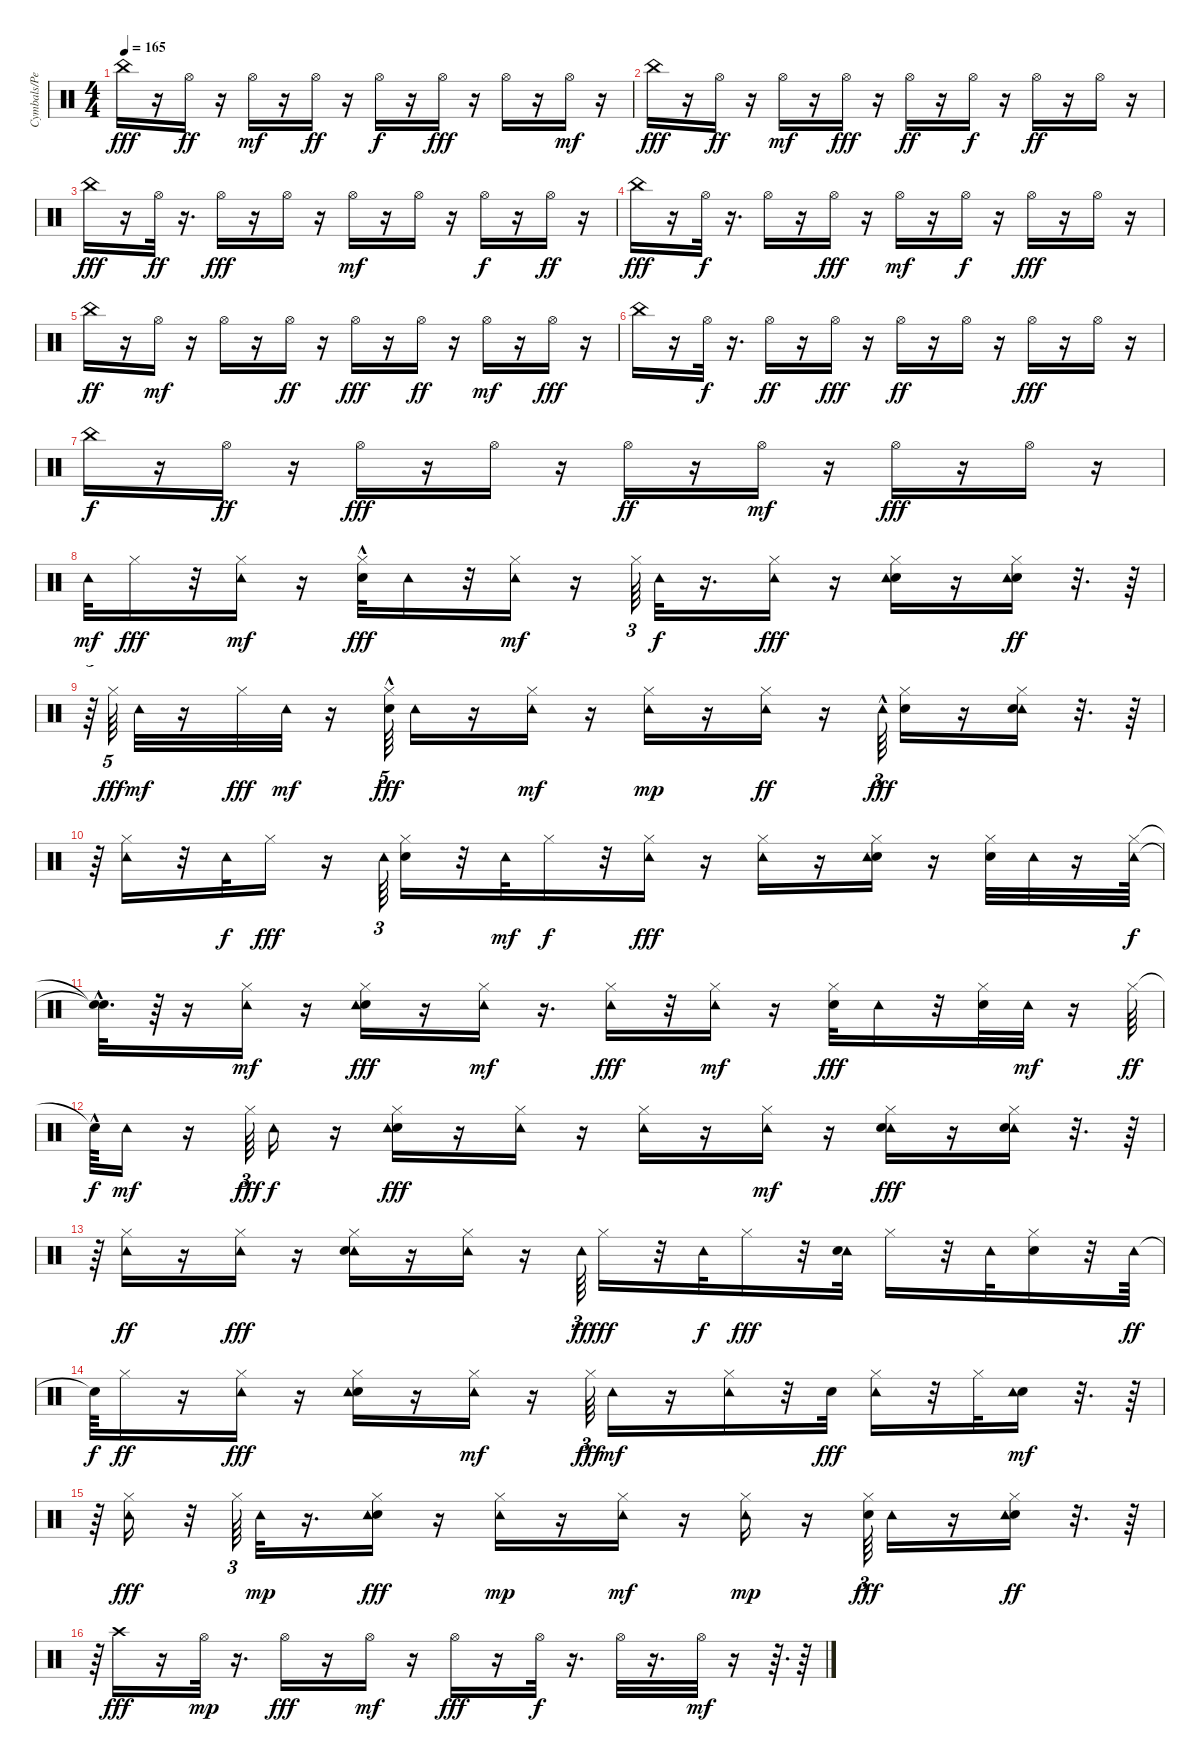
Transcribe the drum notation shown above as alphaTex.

\track ("Cymbals/Percussion" "Cymbals/Pe") {instrument percussion}
\staff {score}
\articulation defaults
\ts (4 4)
\tempo 165
\clef neutral
\ks c "China (hit)".16{dy fff}
r.16 "Hi-Hat (open)".16{dy ff} r.16 "Hi-Hat (open)".16{dy mf} r.16 "Hi-Hat (open)".16{dy ff} r.16 "Hi-Hat (open)".16{dy f} r.16 "Hi-Hat (open)".16{dy fff} r.16 "Hi-Hat (open)".16 r.16 "Hi-Hat (open)".16{dy mf} r.16 |
"China (hit)".16{dy fff} r.16 "Hi-Hat (open)".16{dy ff} r.16 "Hi-Hat (open)".16{dy mf} r.16 "Hi-Hat (open)".16{dy fff} r.16 "Hi-Hat (open)".16{dy ff} r.16 "Hi-Hat (open)".16{dy f} r.16 "Hi-Hat (open)".16{dy ff} r.16 "Hi-Hat (open)".16 r.16 |
"China (hit)".16{dy fff} r.16 "Hi-Hat (open)".32{dy ff} r.16{d} "Hi-Hat (open)".16{dy fff} r.16 "Hi-Hat (open)".16 r.16 "Hi-Hat (open)".16{dy mf} r.16 "Hi-Hat (open)".16 r.16 "Hi-Hat (open)".16{dy f} r.16 "Hi-Hat (open)".16{dy ff} r.16 |
"China (hit)".16{dy fff} r.16 "Hi-Hat (open)".32{dy f} r.16{d} "Hi-Hat (open)".16 r.16 "Hi-Hat (open)".16{dy fff} r.16 "Hi-Hat (open)".16{dy mf} r.16 "Hi-Hat (open)".16{dy f} r.16 "Hi-Hat (open)".16{dy fff} r.16 "Hi-Hat (open)".16 r.16 |
"China (hit)".16{dy ff} r.16 "Hi-Hat (open)".16{dy mf} r.16 "Hi-Hat (open)".16 r.16 "Hi-Hat (open)".16{dy ff} r.16 "Hi-Hat (open)".16{dy fff} r.16 "Hi-Hat (open)".16{dy ff} r.16 "Hi-Hat (open)".16{dy mf} r.16 "Hi-Hat (open)".16{dy fff} r.16 |
"China (hit)".16 r.16 "Hi-Hat (open)".32{dy f} r.16{d} "Hi-Hat (open)".16{dy ff} r.16 "Hi-Hat (open)".16{dy fff} r.16 "Hi-Hat (open)".16{dy ff} r.16 "Hi-Hat (open)".16 r.16 "Hi-Hat (open)".16{dy fff} r.16 "Hi-Hat (open)".16 r.16 |
"China (hit)".16{dy f} r.16 "Hi-Hat (open)".16{dy ff} r.16 "Hi-Hat (open)".16{dy fff} r.16 "Hi-Hat (open)".16 r.16 "Hi-Hat (open)".16{dy ff} r.16 "Hi-Hat (open)".16{dy mf} r.16 "Hi-Hat (open)".16{dy fff} r.16 "Hi-Hat (open)".16 r.16 |
"Tambourine (hit)".32{dy mf} "Hi-Hat (closed)".16{dy fff} r.32 ("Hi-Hat (closed)" "Tambourine (hit)").16{dy mf} r.16 ("Hand Clap (hit)" "Hi-Hat (closed)"{hac}).32{dy fff} "Tambourine (hit)".16 r.32 ("Hi-Hat (closed)" "Tambourine (hit)").16{dy mf} r.16 "Hi-Hat (closed)".64{tu (3 2)} "Tambourine (hit)".32{dy f} r.16{d} ("Hi-Hat (closed)" "Tambourine (hit)").16{dy fff} r.16 ("Hi-Hat (closed)" "Hand Clap (hit)" "Tambourine (hit)").16 r.16 ("Hand Clap (hit)" "Tambourine (hit)" "Hi-Hat (closed)").16{dy ff} r.32{d} r.64 |
r.64{tu (3 2)} "Hi-Hat (closed)".64{tu (5 4) dy fff} "Tambourine (hit)".32{dy mf} r.16 "Hi-Hat (closed)".32{dy fff} "Tambourine (hit)".32{dy mf} r.16 ("Hi-Hat (closed)"{hac} "Hand Clap (hit)").64{tu (5 4) dy fff} "Tambourine (hit)".16 r.16 ("Hi-Hat (closed)" "Tambourine (hit)").16{dy mf} r.16 ("Hi-Hat (closed)" "Tambourine (hit)").16{dy mp} r.16 ("Tambourine (hit)" "Hi-Hat (closed)").16{dy ff} r.16 "Tambourine (hit)"{hac}.64{tu (3 2) dy fff} ("Hi-Hat (closed)" "Hand Clap (hit)").16 r.16 ("Tambourine (hit)" "Hand Clap (hit)" "Hi-Hat (closed)").16 r.32{d} r.64 |
r.64 ("Tambourine (hit)" "Hi-Hat (closed)").16 r.32 "Tambourine (hit)".32{dy f} "Hi-Hat (closed)".16{dy fff} r.16 "Tambourine (hit)".64{tu (3 2)} ("Hand Clap (hit)" "Hi-Hat (closed)").16 r.32 "Tambourine (hit)".32{dy mf} "Hi-Hat (closed)".16{dy f} r.32 ("Tambourine (hit)" "Hi-Hat (closed)").16{dy fff} r.16 ("Tambourine (hit)" "Hi-Hat (closed)").16 r.16 ("Hand Clap (hit)" "Hi-Hat (closed)" "Tambourine (hit)").16 r.16 ("Hi-Hat (closed)" "Hand Clap (hit)").32 "Tambourine (hit)".32 r.16 ("Hi-Hat (closed)" "Tambourine (hit)").64{dy f} |
("Snare (hit)"{hac t} "Snare (hit)"{hac t}).32{d} r.64 r.16 ("Hi-Hat (closed)" "Tambourine (hit)").16{dy mf} r.16 ("Hand Clap (hit)" "Hi-Hat (closed)" "Tambourine (hit)").16{dy fff} r.16 ("Hi-Hat (closed)" "Tambourine (hit)").16{dy mf} r.16{d} ("Tambourine (hit)" "Hi-Hat (closed)").16{dy fff} r.32 ("Hi-Hat (closed)" "Tambourine (hit)").16{dy mf} r.16 ("Hand Clap (hit)" "Hi-Hat (closed)").32{dy fff} "Tambourine (hit)".16 r.32 ("Hi-Hat (closed)" "Hand Clap (hit)").32 "Tambourine (hit)".32{dy mf} r.16 "Hi-Hat (closed)".64{dy ff} |
"Snare (hit)"{hac t}.64{dy f} "Tambourine (hit)".16{dy mf} r.16 "Hi-Hat (closed)".64{tu (3 2) dy fff} "Tambourine (hit)".16{dy f} r.16 ("Hi-Hat (closed)" "Hand Clap (hit)" "Tambourine (hit)").16{dy fff} r.16 ("Hi-Hat (closed)" "Tambourine (hit)").16 r.16 ("Hi-Hat (closed)" "Tambourine (hit)").16 r.16 ("Hi-Hat (closed)" "Tambourine (hit)").16{dy mf} r.16 ("Tambourine (hit)" "Hand Clap (hit)" "Hi-Hat (closed)").16{dy fff} r.16 ("Tambourine (hit)" "Hand Clap (hit)" "Hi-Hat (closed)").16 r.32{d} r.64 |
r.64 ("Tambourine (hit)" "Hi-Hat (closed)").16{dy ff} r.16 ("Tambourine (hit)" "Hi-Hat (closed)").16{dy fff} r.16 ("Tambourine (hit)" "Hi-Hat (closed)" "Hand Clap (hit)").16 r.16 ("Tambourine (hit)" "Hi-Hat (closed)").16 r.16 "Tambourine (hit)".64{tu (3 2) dy ff} "Hi-Hat (closed)".16{dy fff} r.32 "Tambourine (hit)".32{dy f} "Hi-Hat (closed)".16{dy fff} r.32 ("Tambourine (hit)" "Hand Clap (hit)").32 "Hi-Hat (closed)".16 r.32 "Tambourine (hit)".32 ("Hi-Hat (closed)" "Hand Clap (hit)").16 r.32 "Tambourine (hit)".64{dy ff} |
"Snare (hit)"{t}.64{dy f} "Hi-Hat (closed)".16{dy ff} r.16 ("Tambourine (hit)" "Hi-Hat (closed)").16{dy fff} r.16 ("Hand Clap (hit)" "Hi-Hat (closed)" "Tambourine (hit)").16 r.16 ("Hi-Hat (closed)" "Tambourine (hit)").16{dy mf} r.16 "Hi-Hat (closed)".64{tu (3 2) dy fff} "Tambourine (hit)".16{dy mf} r.16 ("Hi-Hat (closed)" "Tambourine (hit)").16 r.32 "Hand Clap (hit)".32{dy fff} ("Hi-Hat (closed)" "Tambourine (hit)").16 r.32 "Hi-Hat (closed)".32 ("Hand Clap (hit)" "Tambourine (hit)").16{dy mf} r.32{d} r.64 |
r.64 ("Hi-Hat (closed)" "Tambourine (hit)").16{dy fff} r.32 "Hi-Hat (closed)".64{tu (3 2)} "Tambourine (hit)".32{dy mp} r.16{d} ("Hand Clap (hit)" "Hi-Hat (closed)" "Tambourine (hit)").16{dy fff} r.16 ("Hi-Hat (closed)" "Tambourine (hit)").16{dy mp} r.16 ("Hi-Hat (closed)" "Tambourine (hit)").16{dy mf} r.16 ("Hi-Hat (closed)" "Tambourine (hit)").16{dy mp} r.16 ("Hi-Hat (closed)" "Hand Clap (hit)").64{tu (3 2) dy fff} "Tambourine (hit)".16 r.16 ("Hi-Hat (closed)" "Hand Clap (hit)" "Tambourine (hit)").16{dy ff} r.32{d} r.64 |
r.64 "Crash high (hit)".16{dy fff} r.16 "Hi-Hat (open)".32{dy mp} r.16{d} "Hi-Hat (open)".16{dy fff} r.16 "Hi-Hat (open)".16{dy mf} r.16 "Hi-Hat (open)".16{dy fff} r.16 "Hi-Hat (open)".32{dy f} r.16{d} "Hi-Hat (open)".32 r.16{d} "Hi-Hat (open)".32{dy mf} r.16 r.64{d} r.64
